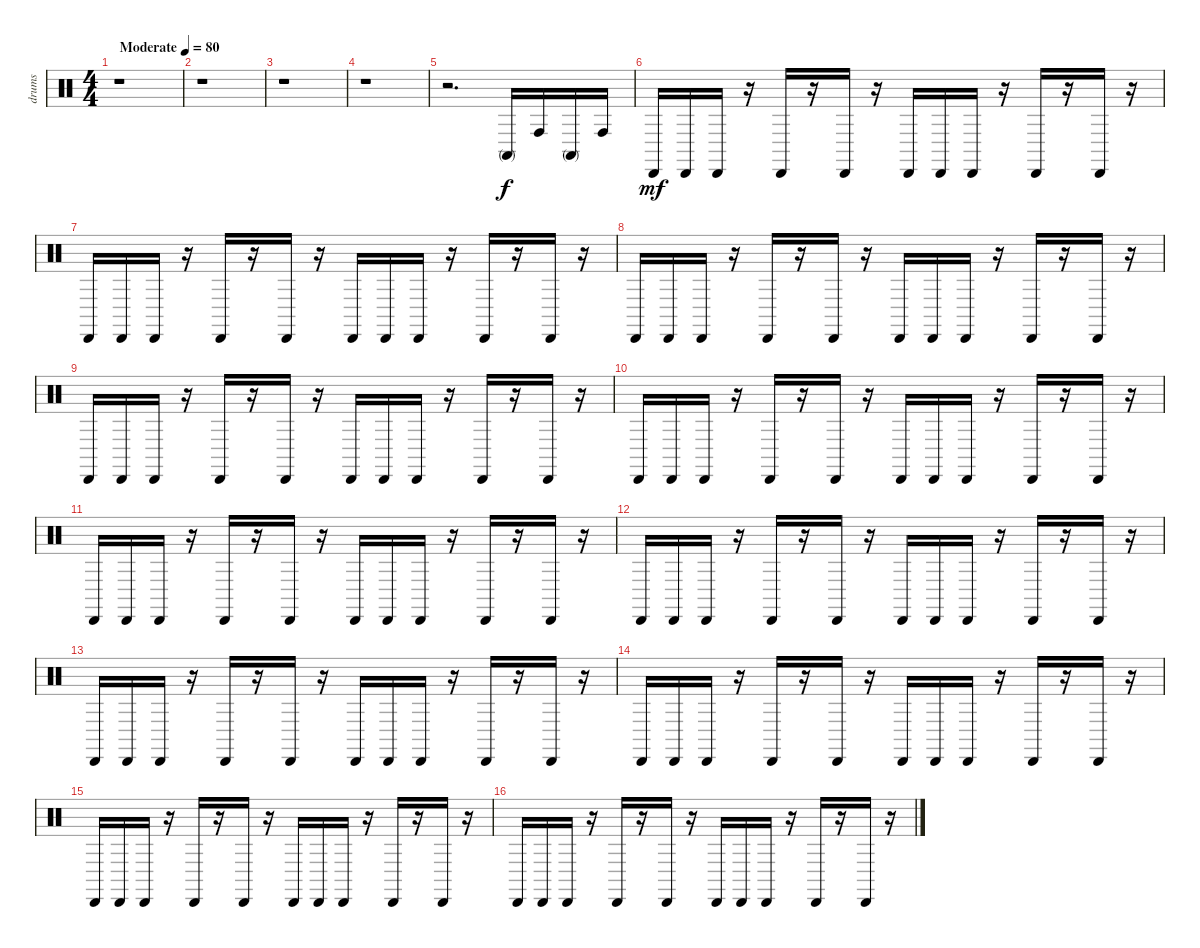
\track ("drums" "drums") {instrument percussion}
\staff {score}
\articulation defaults
\ts (4 4)
\tempo (80 "Moderate")
\clef neutral
\ks c
r.1{dy f} |
r.1 |
r.1 |
r.1 |
r.2{d} "Conga high (mute)".16 "Conga high (hit)".16 "Conga high (mute)".16 "Conga high (hit)".16 |
"Cabasa (hit)".16{dy mf} "Cabasa (hit)".16 "Cabasa (hit)".16 r.16 "Cabasa (hit)".16 r.16 "Cabasa (hit)".16 r.16 "Cabasa (hit)".16 "Cabasa (hit)".16 "Cabasa (hit)".16 r.16 "Cabasa (hit)".16 r.16 "Cabasa (hit)".16 r.16 |
"Cabasa (hit)".16 "Cabasa (hit)".16 "Cabasa (hit)".16 r.16 "Cabasa (hit)".16 r.16 "Cabasa (hit)".16 r.16 "Cabasa (hit)".16 "Cabasa (hit)".16 "Cabasa (hit)".16 r.16 "Cabasa (hit)".16 r.16 "Cabasa (hit)".16 r.16 |
"Cabasa (hit)".16 "Cabasa (hit)".16 "Cabasa (hit)".16 r.16 "Cabasa (hit)".16 r.16 "Cabasa (hit)".16 r.16 "Cabasa (hit)".16 "Cabasa (hit)".16 "Cabasa (hit)".16 r.16 "Cabasa (hit)".16 r.16 "Cabasa (hit)".16 r.16 |
"Cabasa (hit)".16 "Cabasa (hit)".16 "Cabasa (hit)".16 r.16 "Cabasa (hit)".16 r.16 "Cabasa (hit)".16 r.16 "Cabasa (hit)".16 "Cabasa (hit)".16 "Cabasa (hit)".16 r.16 "Cabasa (hit)".16 r.16 "Cabasa (hit)".16 r.16 |
"Cabasa (hit)".16 "Cabasa (hit)".16 "Cabasa (hit)".16 r.16 "Cabasa (hit)".16 r.16 "Cabasa (hit)".16 r.16 "Cabasa (hit)".16 "Cabasa (hit)".16 "Cabasa (hit)".16 r.16 "Cabasa (hit)".16 r.16 "Cabasa (hit)".16 r.16 |
"Cabasa (hit)".16 "Cabasa (hit)".16 "Cabasa (hit)".16 r.16 "Cabasa (hit)".16 r.16 "Cabasa (hit)".16 r.16 "Cabasa (hit)".16 "Cabasa (hit)".16 "Cabasa (hit)".16 r.16 "Cabasa (hit)".16 r.16 "Cabasa (hit)".16 r.16 |
"Cabasa (hit)".16 "Cabasa (hit)".16 "Cabasa (hit)".16 r.16 "Cabasa (hit)".16 r.16 "Cabasa (hit)".16 r.16 "Cabasa (hit)".16 "Cabasa (hit)".16 "Cabasa (hit)".16 r.16 "Cabasa (hit)".16 r.16 "Cabasa (hit)".16 r.16 |
"Cabasa (hit)".16 "Cabasa (hit)".16 "Cabasa (hit)".16 r.16 "Cabasa (hit)".16 r.16 "Cabasa (hit)".16 r.16 "Cabasa (hit)".16 "Cabasa (hit)".16 "Cabasa (hit)".16 r.16 "Cabasa (hit)".16 r.16 "Cabasa (hit)".16 r.16 |
"Cabasa (hit)".16 "Cabasa (hit)".16 "Cabasa (hit)".16 r.16 "Cabasa (hit)".16 r.16 "Cabasa (hit)".16 r.16 "Cabasa (hit)".16 "Cabasa (hit)".16 "Cabasa (hit)".16 r.16 "Cabasa (hit)".16 r.16 "Cabasa (hit)".16 r.16 |
"Cabasa (hit)".16 "Cabasa (hit)".16 "Cabasa (hit)".16 r.16 "Cabasa (hit)".16 r.16 "Cabasa (hit)".16 r.16 "Cabasa (hit)".16 "Cabasa (hit)".16 "Cabasa (hit)".16 r.16 "Cabasa (hit)".16 r.16 "Cabasa (hit)".16 r.16 |
"Cabasa (hit)".16 "Cabasa (hit)".16 "Cabasa (hit)".16 r.16 "Cabasa (hit)".16 r.16 "Cabasa (hit)".16 r.16 "Cabasa (hit)".16 "Cabasa (hit)".16 "Cabasa (hit)".16 r.16 "Cabasa (hit)".16 r.16 "Cabasa (hit)".16 r.16
